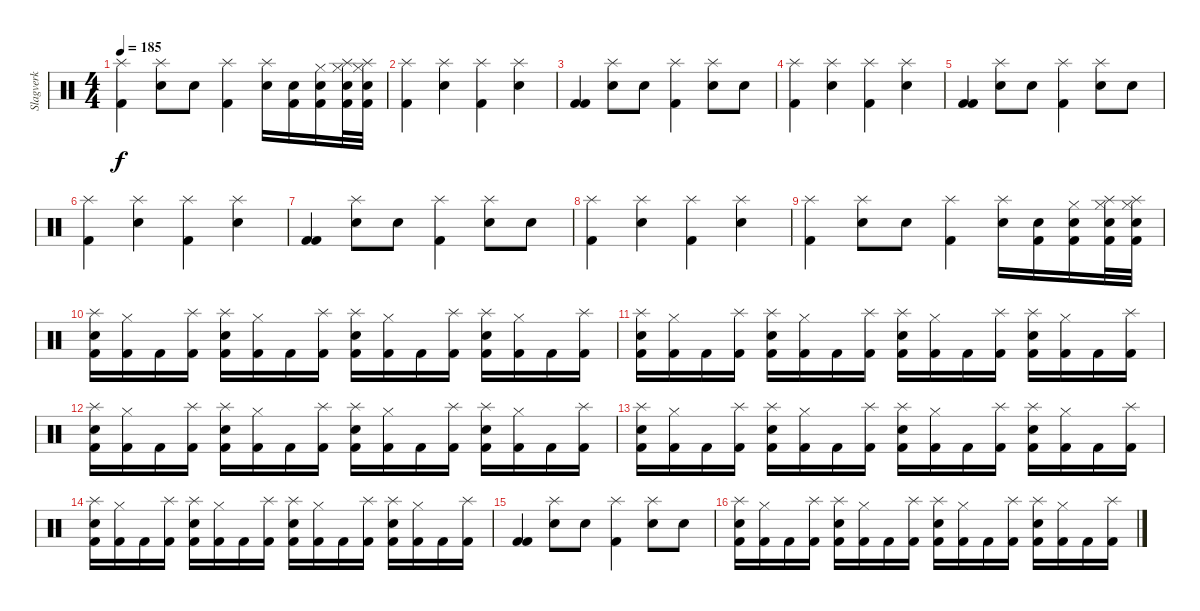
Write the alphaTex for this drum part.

\track ("Slagverk" "Slagverk") {instrument percussion}
\staff {score}
\articulation defaults
\ts (4 4)
\tempo 185
\clef neutral
\ks c
("Splash (hit)" "Kick (hit) 2").4{dy f} ("Splash (hit)" "Electric Snare (hit)").8 "Electric Snare (hit)".8 ("Splash (hit)" "Kick (hit) 2").4 ("Splash (hit)" "Electric Snare (hit)").16 ("Kick (hit) 2" "Electric Snare (hit)").16 ("Kick (hit) 2" "Electric Snare (hit)" "Hi-Hat (closed)").16 ("Kick (hit) 2" "Electric Snare (hit)" "Hi-Hat (closed)" "Splash (hit)").32 ("Kick (hit) 2" "Electric Snare (hit)" "Hi-Hat (closed)" "Splash (hit)").32 |
("Splash (hit)" "Kick (hit) 2").4 ("Splash (hit)" "Electric Snare (hit)").4 ("Splash (hit)" "Kick (hit) 2").4 ("Splash (hit)" "Electric Snare (hit)").4 |
("Kick (hit) 2" "Kick (hit) 2").4 ("Splash (hit)" "Electric Snare (hit)").8 "Electric Snare (hit)".8 ("Splash (hit)" "Kick (hit) 2").4 ("Splash (hit)" "Electric Snare (hit)").8 "Electric Snare (hit)".8 |
("Splash (hit)" "Kick (hit) 2").4 ("Splash (hit)" "Electric Snare (hit)").4 ("Splash (hit)" "Kick (hit) 2").4 ("Splash (hit)" "Electric Snare (hit)").4 |
("Kick (hit) 2" "Kick (hit) 2").4 ("Splash (hit)" "Electric Snare (hit)").8 "Electric Snare (hit)".8 ("Splash (hit)" "Kick (hit) 2").4 ("Splash (hit)" "Electric Snare (hit)").8 "Electric Snare (hit)".8 |
("Splash (hit)" "Kick (hit) 2").4 ("Splash (hit)" "Electric Snare (hit)").4 ("Splash (hit)" "Kick (hit) 2").4 ("Splash (hit)" "Electric Snare (hit)").4 |
("Kick (hit) 2" "Kick (hit) 2").4 ("Splash (hit)" "Electric Snare (hit)").8 "Electric Snare (hit)".8 ("Splash (hit)" "Kick (hit) 2").4 ("Splash (hit)" "Electric Snare (hit)").8 "Electric Snare (hit)".8 |
("Splash (hit)" "Kick (hit) 2").4 ("Splash (hit)" "Electric Snare (hit)").4 ("Splash (hit)" "Kick (hit) 2").4 ("Splash (hit)" "Electric Snare (hit)").4 |
("Splash (hit)" "Kick (hit) 2").4 ("Splash (hit)" "Electric Snare (hit)").8 "Electric Snare (hit)".8 ("Splash (hit)" "Kick (hit) 2").4 ("Splash (hit)" "Electric Snare (hit)").16 ("Kick (hit) 2" "Electric Snare (hit)").16 ("Kick (hit) 2" "Electric Snare (hit)" "Hi-Hat (closed)").16 ("Kick (hit) 2" "Electric Snare (hit)" "Hi-Hat (closed)" "Splash (hit)").32 ("Kick (hit) 2" "Electric Snare (hit)" "Hi-Hat (closed)" "Splash (hit)").32 |
("Kick (hit) 2" "Electric Snare (hit)" "Splash (hit)").16 ("Kick (hit) 2" "Hi-Hat (closed)").16 "Kick (hit) 2".16 ("Kick (hit) 2" "Splash (hit)").16 ("Kick (hit) 2" "Electric Snare (hit)" "Splash (hit)").16 ("Kick (hit) 2" "Hi-Hat (closed)").16 "Kick (hit) 2".16 ("Kick (hit) 2" "Splash (hit)").16 ("Kick (hit) 2" "Electric Snare (hit)" "Splash (hit)").16 ("Kick (hit) 2" "Hi-Hat (closed)").16 "Kick (hit) 2".16 ("Kick (hit) 2" "Splash (hit)").16 ("Kick (hit) 2" "Electric Snare (hit)" "Splash (hit)").16 ("Kick (hit) 2" "Hi-Hat (closed)").16 "Kick (hit) 2".16 ("Kick (hit) 2" "Splash (hit)").16 |
("Kick (hit) 2" "Electric Snare (hit)" "Splash (hit)").16 ("Kick (hit) 2" "Hi-Hat (closed)").16 "Kick (hit) 2".16 ("Kick (hit) 2" "Splash (hit)").16 ("Kick (hit) 2" "Electric Snare (hit)" "Splash (hit)").16 ("Kick (hit) 2" "Hi-Hat (closed)").16 "Kick (hit) 2".16 ("Kick (hit) 2" "Splash (hit)").16 ("Kick (hit) 2" "Electric Snare (hit)" "Splash (hit)").16 ("Kick (hit) 2" "Hi-Hat (closed)").16 "Kick (hit) 2".16 ("Kick (hit) 2" "Splash (hit)").16 ("Kick (hit) 2" "Electric Snare (hit)" "Splash (hit)").16 ("Kick (hit) 2" "Hi-Hat (closed)").16 "Kick (hit) 2".16 ("Kick (hit) 2" "Splash (hit)").16 |
("Kick (hit) 2" "Electric Snare (hit)" "Splash (hit)").16 ("Kick (hit) 2" "Hi-Hat (closed)").16 "Kick (hit) 2".16 ("Kick (hit) 2" "Splash (hit)").16 ("Kick (hit) 2" "Electric Snare (hit)" "Splash (hit)").16 ("Kick (hit) 2" "Hi-Hat (closed)").16 "Kick (hit) 2".16 ("Kick (hit) 2" "Splash (hit)").16 ("Kick (hit) 2" "Electric Snare (hit)" "Splash (hit)").16 ("Kick (hit) 2" "Hi-Hat (closed)").16 "Kick (hit) 2".16 ("Kick (hit) 2" "Splash (hit)").16 ("Kick (hit) 2" "Electric Snare (hit)" "Splash (hit)").16 ("Kick (hit) 2" "Hi-Hat (closed)").16 "Kick (hit) 2".16 ("Kick (hit) 2" "Splash (hit)").16 |
("Kick (hit) 2" "Electric Snare (hit)" "Splash (hit)").16 ("Kick (hit) 2" "Hi-Hat (closed)").16 "Kick (hit) 2".16 ("Kick (hit) 2" "Splash (hit)").16 ("Kick (hit) 2" "Electric Snare (hit)" "Splash (hit)").16 ("Kick (hit) 2" "Hi-Hat (closed)").16 "Kick (hit) 2".16 ("Kick (hit) 2" "Splash (hit)").16 ("Kick (hit) 2" "Electric Snare (hit)" "Splash (hit)").16 ("Kick (hit) 2" "Hi-Hat (closed)").16 "Kick (hit) 2".16 ("Kick (hit) 2" "Splash (hit)").16 ("Kick (hit) 2" "Electric Snare (hit)" "Splash (hit)").16 ("Kick (hit) 2" "Hi-Hat (closed)").16 "Kick (hit) 2".16 ("Kick (hit) 2" "Splash (hit)").16 |
("Kick (hit) 2" "Electric Snare (hit)" "Splash (hit)").16 ("Kick (hit) 2" "Hi-Hat (closed)").16 "Kick (hit) 2".16 ("Kick (hit) 2" "Splash (hit)").16 ("Kick (hit) 2" "Electric Snare (hit)" "Splash (hit)").16 ("Kick (hit) 2" "Hi-Hat (closed)").16 "Kick (hit) 2".16 ("Kick (hit) 2" "Splash (hit)").16 ("Kick (hit) 2" "Electric Snare (hit)" "Splash (hit)").16 ("Kick (hit) 2" "Hi-Hat (closed)").16 "Kick (hit) 2".16 ("Kick (hit) 2" "Splash (hit)").16 ("Kick (hit) 2" "Electric Snare (hit)" "Splash (hit)").16 ("Kick (hit) 2" "Hi-Hat (closed)").16 "Kick (hit) 2".16 ("Kick (hit) 2" "Splash (hit)").16 |
("Kick (hit) 2" "Kick (hit) 2").4 ("Splash (hit)" "Electric Snare (hit)").8 "Electric Snare (hit)".8 ("Splash (hit)" "Kick (hit) 2").4 ("Splash (hit)" "Electric Snare (hit)").8 "Electric Snare (hit)".8 |
("Kick (hit) 2" "Electric Snare (hit)" "Splash (hit)").16 ("Kick (hit) 2" "Hi-Hat (closed)").16 "Kick (hit) 2".16 ("Kick (hit) 2" "Splash (hit)").16 ("Kick (hit) 2" "Electric Snare (hit)" "Splash (hit)").16 ("Kick (hit) 2" "Hi-Hat (closed)").16 "Kick (hit) 2".16 ("Kick (hit) 2" "Splash (hit)").16 ("Kick (hit) 2" "Electric Snare (hit)" "Splash (hit)").16 ("Kick (hit) 2" "Hi-Hat (closed)").16 "Kick (hit) 2".16 ("Kick (hit) 2" "Splash (hit)").16 ("Kick (hit) 2" "Electric Snare (hit)" "Splash (hit)").16 ("Kick (hit) 2" "Hi-Hat (closed)").16 "Kick (hit) 2".16 ("Kick (hit) 2" "Splash (hit)").16
